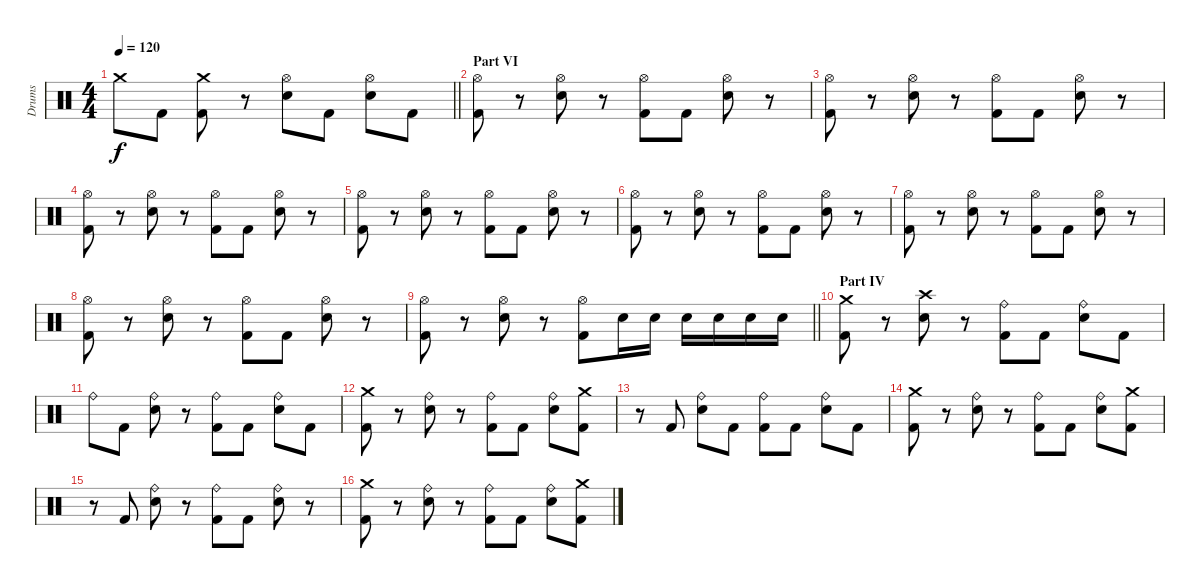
\track ("Drums" "Drums") {instrument percussion}
\staff {score}
\articulation defaults
\ts (4 4)
\tempo 120
\clef neutral
\barLineRight lightlight
\ks c "Crash medium (hit)".8{dy f} "Kick (hit) 2".8
("Crash medium (hit)" "Kick (hit) 2").8 r.8 ("Hi-Hat (open)" "Electric Snare (hit)").8 "Kick (hit) 2".8 ("Hi-Hat (open)" "Electric Snare (hit)").8 "Kick (hit) 2".8 |
\section ("" "Part VI")
("Hi-Hat (open)" "Kick (hit) 2").8 r.8 ("Hi-Hat (open)" "Electric Snare (hit)").8 r.8 ("Hi-Hat (open)" "Kick (hit) 2").8 "Kick (hit) 2".8 ("Hi-Hat (open)" "Electric Snare (hit)").8 r.8 |
("Hi-Hat (open)" "Kick (hit) 2").8 r.8 ("Hi-Hat (open)" "Electric Snare (hit)").8 r.8 ("Hi-Hat (open)" "Kick (hit) 2").8 "Kick (hit) 2".8 ("Hi-Hat (open)" "Electric Snare (hit)").8 r.8 |
("Hi-Hat (open)" "Kick (hit) 2").8 r.8 ("Hi-Hat (open)" "Electric Snare (hit)").8 r.8 ("Hi-Hat (open)" "Kick (hit) 2").8 "Kick (hit) 2".8 ("Hi-Hat (open)" "Electric Snare (hit)").8 r.8 |
("Hi-Hat (open)" "Kick (hit) 2").8 r.8 ("Hi-Hat (open)" "Electric Snare (hit)").8 r.8 ("Hi-Hat (open)" "Kick (hit) 2").8 "Kick (hit) 2".8 ("Hi-Hat (open)" "Electric Snare (hit)").8 r.8 |
("Hi-Hat (open)" "Kick (hit) 2").8 r.8 ("Hi-Hat (open)" "Electric Snare (hit)").8 r.8 ("Hi-Hat (open)" "Kick (hit) 2").8 "Kick (hit) 2".8 ("Hi-Hat (open)" "Electric Snare (hit)").8 r.8 |
("Hi-Hat (open)" "Kick (hit) 2").8 r.8 ("Hi-Hat (open)" "Electric Snare (hit)").8 r.8 ("Hi-Hat (open)" "Kick (hit) 2").8 "Kick (hit) 2".8 ("Hi-Hat (open)" "Electric Snare (hit)").8 r.8 |
("Hi-Hat (open)" "Kick (hit) 2").8 r.8 ("Hi-Hat (open)" "Electric Snare (hit)").8 r.8 ("Hi-Hat (open)" "Kick (hit) 2").8 "Kick (hit) 2".8 ("Hi-Hat (open)" "Electric Snare (hit)").8 r.8 |
\barLineRight lightlight
("Hi-Hat (open)" "Kick (hit) 2").8 r.8 ("Hi-Hat (open)" "Electric Snare (hit)").8 r.8 ("Hi-Hat (open)" "Kick (hit) 2").8 "Electric Snare (hit)".16 "Electric Snare (hit)".16 "Electric Snare (hit)".16 "Electric Snare (hit)".16 "Electric Snare (hit)".16 "Electric Snare (hit)".16 |
\section ("" "Part IV")
("Crash medium (hit)" "Kick (hit) 2").8 r.8 ("Crash high (hit)" "Electric Snare (hit)").8 r.8 ("Ride (bell)" "Kick (hit) 2").8 "Kick (hit) 2".8 ("Ride (bell)" "Electric Snare (hit)").8 "Kick (hit) 2".8 |
"Ride (bell)".8 "Kick (hit) 2".8 ("Ride (bell)" "Electric Snare (hit)").8 r.8 ("Ride (bell)" "Kick (hit) 2").8 "Kick (hit) 2".8 ("Ride (bell)" "Electric Snare (hit)").8 "Kick (hit) 2".8 |
("Crash medium (hit)" "Kick (hit) 2").8 r.8 ("Ride (bell)" "Electric Snare (hit)").8 r.8 ("Ride (bell)" "Kick (hit) 2").8 "Kick (hit) 2".8 ("Ride (bell)" "Electric Snare (hit)").8 ("Crash medium (hit)" "Kick (hit) 2").8 |
r.8 "Kick (hit) 2".8 ("Ride (bell)" "Electric Snare (hit)").8 "Kick (hit) 2".8 ("Ride (bell)" "Kick (hit) 2").8 "Kick (hit) 2".8 ("Ride (bell)" "Electric Snare (hit)").8 "Kick (hit) 2".8 |
("Crash medium (hit)" "Kick (hit) 2").8 r.8 ("Ride (bell)" "Electric Snare (hit)").8 r.8 ("Ride (bell)" "Kick (hit) 2").8 "Kick (hit) 2".8 ("Ride (bell)" "Electric Snare (hit)").8 ("Crash medium (hit)" "Kick (hit) 2").8 |
r.8 "Kick (hit) 2".8 ("Ride (bell)" "Electric Snare (hit)").8 r.8 ("Ride (bell)" "Kick (hit) 2").8 "Kick (hit) 2".8 ("Ride (bell)" "Electric Snare (hit)").8 r.8 |
("Crash medium (hit)" "Kick (hit) 2").8 r.8 ("Ride (bell)" "Electric Snare (hit)").8 r.8 ("Ride (bell)" "Kick (hit) 2").8 "Kick (hit) 2".8 ("Ride (bell)" "Electric Snare (hit)").8 ("Crash medium (hit)" "Kick (hit) 2").8
